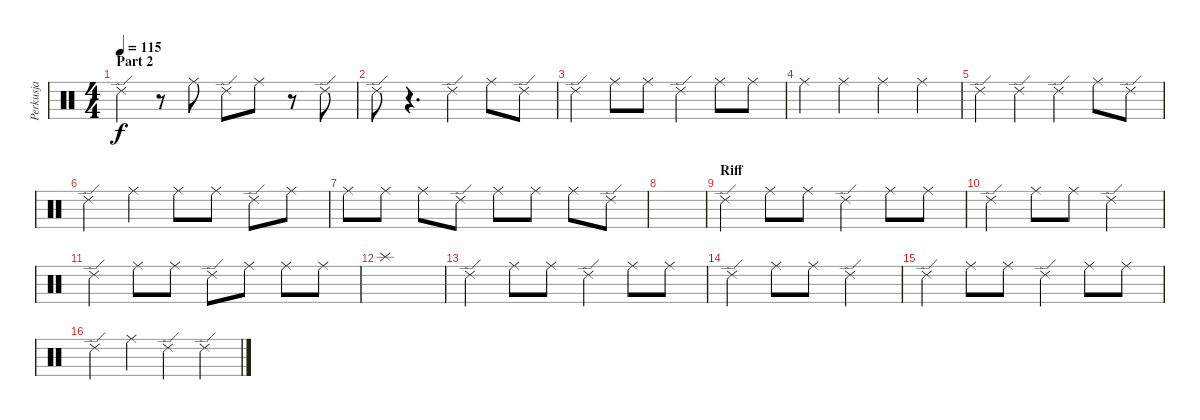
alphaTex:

\track ("Perkusja" "Perkusja") {instrument percussion}
\staff {score}
\articulation defaults
\ts (4 4)
\section ("" "Part 2")
\tempo 115
\clef neutral
\ks c "Ride (edge) 2".4{dy f}
r.8 "Ride (middle)".8 "Ride (edge) 2".8 "Ride (middle)".8 r.8 "Ride (edge) 2".8 |
"Ride (edge) 2".8 r.4{d} "Ride (edge) 2".4 "Ride (middle)".8 "Ride (edge) 2".8 |
"Ride (edge) 2".4 "Ride (middle)".8 "Ride (middle)".8 "Ride (edge) 2".4 "Ride (middle)".8 "Ride (middle)".8 |
"Ride (middle)".4 "Ride (middle)".4 "Ride (middle)".4 "Ride (middle)".4 |
"Ride (edge) 2".4 "Ride (edge) 2".4 "Ride (edge) 2".4 "Ride (middle)".8 "Ride (edge) 2".8 |
"Ride (edge) 2".4 "Ride (middle)".4 "Ride (middle)".8 "Ride (middle)".8 "Ride (edge) 2".8 "Ride (middle)".8 |
"Ride (middle)".8 "Ride (middle)".8 "Ride (middle)".8 "Ride (edge) 2".8 "Ride (middle)".8 "Ride (middle)".8 "Ride (middle)".8 "Ride (edge) 2".8 |
|
\section ("" "Riff")
"Ride (edge) 2".4 "Ride (middle)".8 "Ride (middle)".8 "Ride (edge) 2".4 "Ride (middle)".8 "Ride (middle)".8 |
"Ride (edge) 2".4 "Ride (middle)".8 "Ride (middle)".8 "Ride (edge) 2".2 |
"Ride (edge) 2".4 "Ride (middle)".8 "Ride (middle)".8 "Ride (edge) 2".8 "Ride (middle)".8 "Ride (middle)".8 "Ride (middle)".8 |
"Splash (hit)".1 |
"Ride (edge) 2".4 "Ride (middle)".8 "Ride (middle)".8 "Ride (edge) 2".4 "Ride (middle)".8 "Ride (middle)".8 |
"Ride (edge) 2".4 "Ride (middle)".8 "Ride (middle)".8 "Ride (edge) 2".2 |
"Ride (edge) 2".4 "Ride (middle)".8 "Ride (middle)".8 "Ride (edge) 2".4 "Ride (middle)".8 "Ride (middle)".8 |
"Ride (edge) 2".4 "Ride (middle)".4 "Ride (edge) 2".4 "Ride (edge) 2".4
